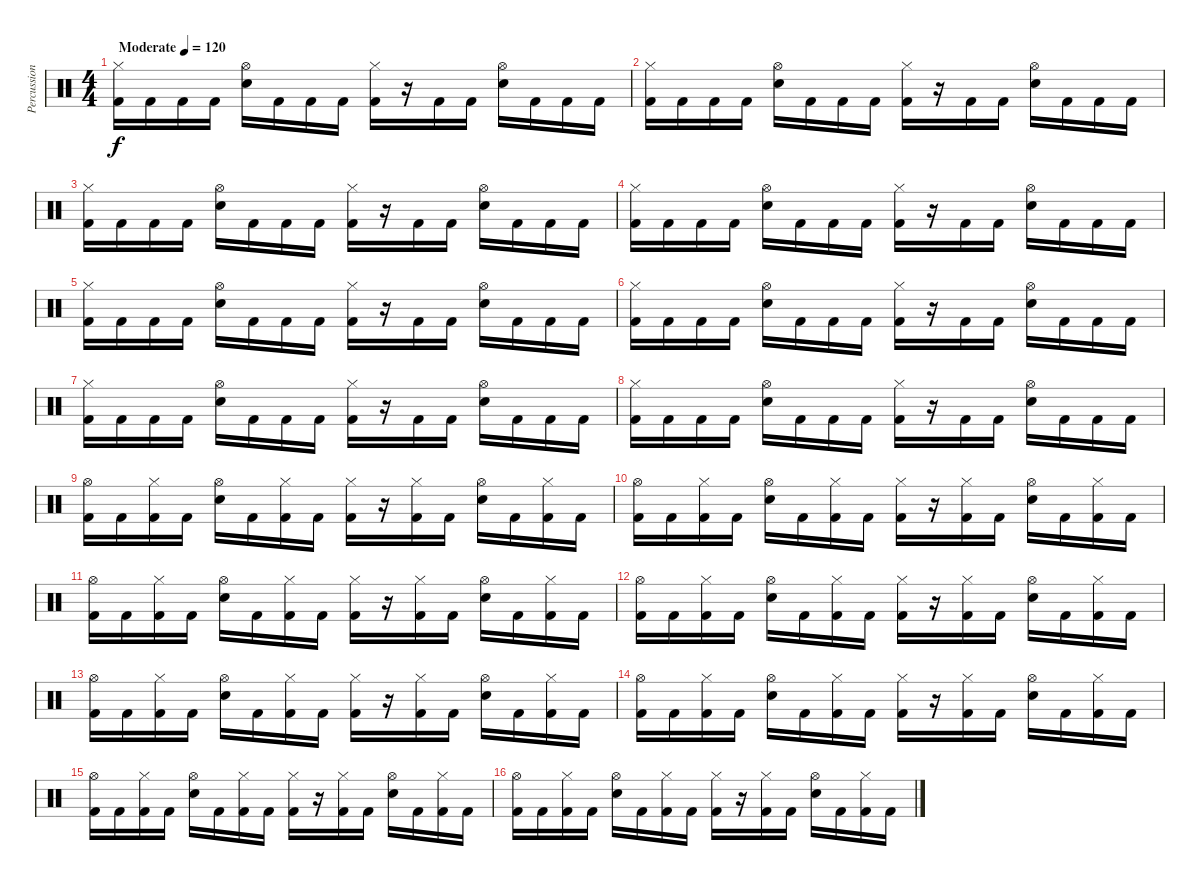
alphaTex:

\track ("Percussions" "Percussion") {instrument percussion}
\staff {score}
\articulation defaults
\ts (4 4)
\tempo (120 "Moderate")
\clef neutral
\ks c
("Hi-Hat (closed)" "Kick (hit) 2").16{dy f} "Kick (hit) 2".16 "Kick (hit) 2".16 "Kick (hit) 2".16 ("Hi-Hat (open)" "Snare (hit) 2").16 "Kick (hit) 2".16 "Kick (hit) 2".16 "Kick (hit) 2".16 ("Hi-Hat (closed)" "Kick (hit) 2").16 r.16 "Kick (hit) 2".16 "Kick (hit) 2".16 ("Hi-Hat (open)" "Snare (hit) 2").16 "Kick (hit) 2".16 "Kick (hit) 2".16 "Kick (hit) 2".16 |
("Hi-Hat (closed)" "Kick (hit) 2").16 "Kick (hit) 2".16 "Kick (hit) 2".16 "Kick (hit) 2".16 ("Hi-Hat (open)" "Snare (hit) 2").16 "Kick (hit) 2".16 "Kick (hit) 2".16 "Kick (hit) 2".16 ("Hi-Hat (closed)" "Kick (hit) 2").16 r.16 "Kick (hit) 2".16 "Kick (hit) 2".16 ("Hi-Hat (open)" "Snare (hit) 2").16 "Kick (hit) 2".16 "Kick (hit) 2".16 "Kick (hit) 2".16 |
("Hi-Hat (closed)" "Kick (hit) 2").16 "Kick (hit) 2".16 "Kick (hit) 2".16 "Kick (hit) 2".16 ("Hi-Hat (open)" "Snare (hit) 2").16 "Kick (hit) 2".16 "Kick (hit) 2".16 "Kick (hit) 2".16 ("Hi-Hat (closed)" "Kick (hit) 2").16 r.16 "Kick (hit) 2".16 "Kick (hit) 2".16 ("Hi-Hat (open)" "Snare (hit) 2").16 "Kick (hit) 2".16 "Kick (hit) 2".16 "Kick (hit) 2".16 |
("Hi-Hat (closed)" "Kick (hit) 2").16 "Kick (hit) 2".16 "Kick (hit) 2".16 "Kick (hit) 2".16 ("Hi-Hat (open)" "Snare (hit) 2").16 "Kick (hit) 2".16 "Kick (hit) 2".16 "Kick (hit) 2".16 ("Hi-Hat (closed)" "Kick (hit) 2").16 r.16 "Kick (hit) 2".16 "Kick (hit) 2".16 ("Hi-Hat (open)" "Snare (hit) 2").16 "Kick (hit) 2".16 "Kick (hit) 2".16 "Kick (hit) 2".16 |
("Hi-Hat (closed)" "Kick (hit) 2").16 "Kick (hit) 2".16 "Kick (hit) 2".16 "Kick (hit) 2".16 ("Hi-Hat (open)" "Snare (hit) 2").16 "Kick (hit) 2".16 "Kick (hit) 2".16 "Kick (hit) 2".16 ("Hi-Hat (closed)" "Kick (hit) 2").16 r.16 "Kick (hit) 2".16 "Kick (hit) 2".16 ("Hi-Hat (open)" "Snare (hit) 2").16 "Kick (hit) 2".16 "Kick (hit) 2".16 "Kick (hit) 2".16 |
("Hi-Hat (closed)" "Kick (hit) 2").16 "Kick (hit) 2".16 "Kick (hit) 2".16 "Kick (hit) 2".16 ("Hi-Hat (open)" "Snare (hit) 2").16 "Kick (hit) 2".16 "Kick (hit) 2".16 "Kick (hit) 2".16 ("Hi-Hat (closed)" "Kick (hit) 2").16 r.16 "Kick (hit) 2".16 "Kick (hit) 2".16 ("Hi-Hat (open)" "Snare (hit) 2").16 "Kick (hit) 2".16 "Kick (hit) 2".16 "Kick (hit) 2".16 |
("Hi-Hat (closed)" "Kick (hit) 2").16 "Kick (hit) 2".16 "Kick (hit) 2".16 "Kick (hit) 2".16 ("Hi-Hat (open)" "Snare (hit) 2").16 "Kick (hit) 2".16 "Kick (hit) 2".16 "Kick (hit) 2".16 ("Hi-Hat (closed)" "Kick (hit) 2").16 r.16 "Kick (hit) 2".16 "Kick (hit) 2".16 ("Hi-Hat (open)" "Snare (hit) 2").16 "Kick (hit) 2".16 "Kick (hit) 2".16 "Kick (hit) 2".16 |
("Hi-Hat (closed)" "Kick (hit) 2").16 "Kick (hit) 2".16 "Kick (hit) 2".16 "Kick (hit) 2".16 ("Hi-Hat (open)" "Snare (hit) 2").16 "Kick (hit) 2".16 "Kick (hit) 2".16 "Kick (hit) 2".16 ("Hi-Hat (closed)" "Kick (hit) 2").16 r.16 "Kick (hit) 2".16 "Kick (hit) 2".16 ("Hi-Hat (open)" "Snare (hit) 2").16 "Kick (hit) 2".16 "Kick (hit) 2".16 "Kick (hit) 2".16 |
("Hi-Hat (open)" "Kick (hit) 2").16 "Kick (hit) 2".16 ("Hi-Hat (closed)" "Kick (hit) 2").16 "Kick (hit) 2".16 ("Hi-Hat (open)" "Snare (hit) 2").16 "Kick (hit) 2".16 ("Hi-Hat (closed)" "Kick (hit) 2").16 "Kick (hit) 2".16 ("Hi-Hat (closed)" "Kick (hit) 2").16 r.16 ("Hi-Hat (closed)" "Kick (hit) 2").16 "Kick (hit) 2".16 ("Hi-Hat (open)" "Snare (hit) 2").16 "Kick (hit) 2".16 ("Hi-Hat (closed)" "Kick (hit) 2").16 "Kick (hit) 2".16 |
("Hi-Hat (open)" "Kick (hit) 2").16 "Kick (hit) 2".16 ("Hi-Hat (closed)" "Kick (hit) 2").16 "Kick (hit) 2".16 ("Hi-Hat (open)" "Snare (hit) 2").16 "Kick (hit) 2".16 ("Hi-Hat (closed)" "Kick (hit) 2").16 "Kick (hit) 2".16 ("Hi-Hat (closed)" "Kick (hit) 2").16 r.16 ("Hi-Hat (closed)" "Kick (hit) 2").16 "Kick (hit) 2".16 ("Hi-Hat (open)" "Snare (hit) 2").16 "Kick (hit) 2".16 ("Hi-Hat (closed)" "Kick (hit) 2").16 "Kick (hit) 2".16 |
("Hi-Hat (open)" "Kick (hit) 2").16 "Kick (hit) 2".16 ("Hi-Hat (closed)" "Kick (hit) 2").16 "Kick (hit) 2".16 ("Hi-Hat (open)" "Snare (hit) 2").16 "Kick (hit) 2".16 ("Hi-Hat (closed)" "Kick (hit) 2").16 "Kick (hit) 2".16 ("Hi-Hat (closed)" "Kick (hit) 2").16 r.16 ("Hi-Hat (closed)" "Kick (hit) 2").16 "Kick (hit) 2".16 ("Hi-Hat (open)" "Snare (hit) 2").16 "Kick (hit) 2".16 ("Hi-Hat (closed)" "Kick (hit) 2").16 "Kick (hit) 2".16 |
("Hi-Hat (open)" "Kick (hit) 2").16 "Kick (hit) 2".16 ("Hi-Hat (closed)" "Kick (hit) 2").16 "Kick (hit) 2".16 ("Hi-Hat (open)" "Snare (hit) 2").16 "Kick (hit) 2".16 ("Hi-Hat (closed)" "Kick (hit) 2").16 "Kick (hit) 2".16 ("Hi-Hat (closed)" "Kick (hit) 2").16 r.16 ("Hi-Hat (closed)" "Kick (hit) 2").16 "Kick (hit) 2".16 ("Hi-Hat (open)" "Snare (hit) 2").16 "Kick (hit) 2".16 ("Hi-Hat (closed)" "Kick (hit) 2").16 "Kick (hit) 2".16 |
("Hi-Hat (open)" "Kick (hit) 2").16 "Kick (hit) 2".16 ("Hi-Hat (closed)" "Kick (hit) 2").16 "Kick (hit) 2".16 ("Hi-Hat (open)" "Snare (hit) 2").16 "Kick (hit) 2".16 ("Hi-Hat (closed)" "Kick (hit) 2").16 "Kick (hit) 2".16 ("Hi-Hat (closed)" "Kick (hit) 2").16 r.16 ("Hi-Hat (closed)" "Kick (hit) 2").16 "Kick (hit) 2".16 ("Hi-Hat (open)" "Snare (hit) 2").16 "Kick (hit) 2".16 ("Hi-Hat (closed)" "Kick (hit) 2").16 "Kick (hit) 2".16 |
("Hi-Hat (open)" "Kick (hit) 2").16 "Kick (hit) 2".16 ("Hi-Hat (closed)" "Kick (hit) 2").16 "Kick (hit) 2".16 ("Hi-Hat (open)" "Snare (hit) 2").16 "Kick (hit) 2".16 ("Hi-Hat (closed)" "Kick (hit) 2").16 "Kick (hit) 2".16 ("Hi-Hat (closed)" "Kick (hit) 2").16 r.16 ("Hi-Hat (closed)" "Kick (hit) 2").16 "Kick (hit) 2".16 ("Hi-Hat (open)" "Snare (hit) 2").16 "Kick (hit) 2".16 ("Hi-Hat (closed)" "Kick (hit) 2").16 "Kick (hit) 2".16 |
("Hi-Hat (open)" "Kick (hit) 2").16 "Kick (hit) 2".16 ("Hi-Hat (closed)" "Kick (hit) 2").16 "Kick (hit) 2".16 ("Hi-Hat (open)" "Snare (hit) 2").16 "Kick (hit) 2".16 ("Hi-Hat (closed)" "Kick (hit) 2").16 "Kick (hit) 2".16 ("Hi-Hat (closed)" "Kick (hit) 2").16 r.16 ("Hi-Hat (closed)" "Kick (hit) 2").16 "Kick (hit) 2".16 ("Hi-Hat (open)" "Snare (hit) 2").16 "Kick (hit) 2".16 ("Hi-Hat (closed)" "Kick (hit) 2").16 "Kick (hit) 2".16 |
("Hi-Hat (open)" "Kick (hit) 2").16 "Kick (hit) 2".16 ("Hi-Hat (closed)" "Kick (hit) 2").16 "Kick (hit) 2".16 ("Hi-Hat (open)" "Snare (hit) 2").16 "Kick (hit) 2".16 ("Hi-Hat (closed)" "Kick (hit) 2").16 "Kick (hit) 2".16 ("Hi-Hat (closed)" "Kick (hit) 2").16 r.16 ("Hi-Hat (closed)" "Kick (hit) 2").16 "Kick (hit) 2".16 ("Hi-Hat (open)" "Snare (hit) 2").16 "Kick (hit) 2".16 ("Hi-Hat (closed)" "Kick (hit) 2").16 "Kick (hit) 2".16
